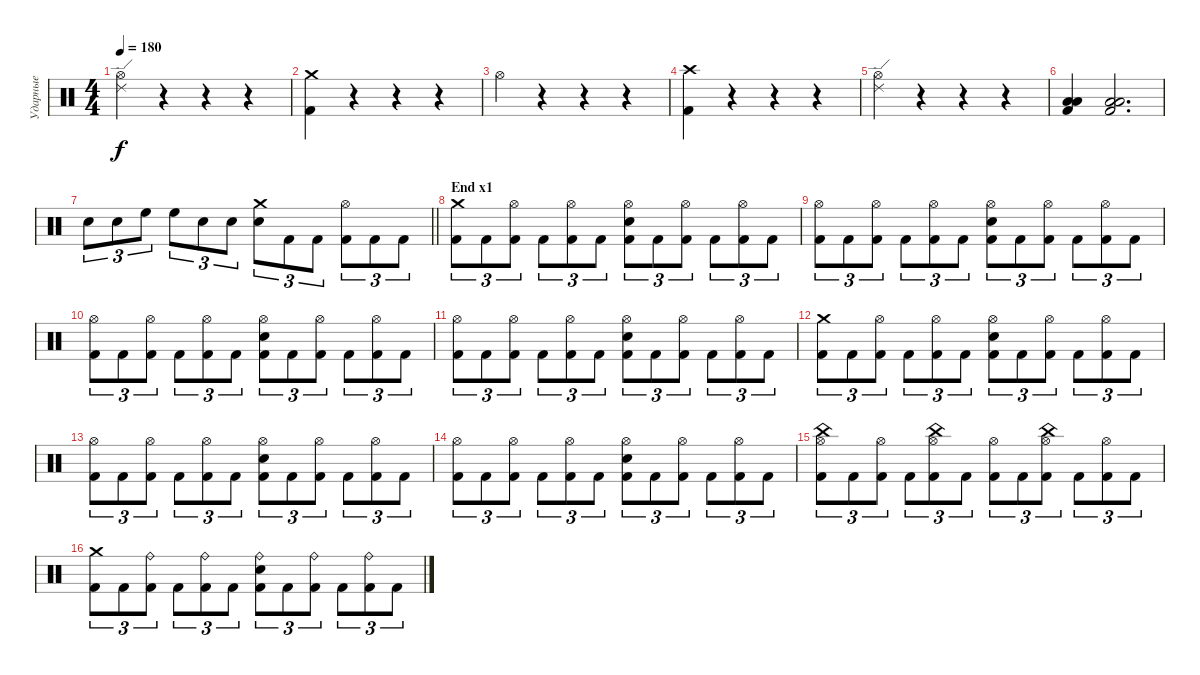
\track ("Ударные" "Ударные") {instrument percussion}
\staff {score}
\articulation defaults
\ts (4 4)
\tempo 180
\clef neutral
\ks c
("Ride (edge) 2" "Hi-Hat (open)").4{dy f} r.4 r.4 r.4 |
("Crash medium (hit)" "Kick (hit) 2").4 r.4 r.4 r.4 |
"Hi-Hat (open)".4 r.4 r.4 r.4 |
("Crash high (hit)" "Kick (hit) 2").4 r.4 r.4 r.4 |
("Hi-Hat (open)" "Ride (edge) 2").4 r.4 r.4 r.4 |
("Low Tom (hit)" "Low Floor Tom (hit)" "Kick (hit) 2").4 ("Low Tom (hit)" "Low Floor Tom (hit)" "Kick (hit) 2").2{d} |
\barLineRight lightlight "Electric Snare (hit)".8{tu (3 2)} "Electric Snare (hit)".8{tu (3 2)} "High Floor Tom (hit)".8{tu (3 2)} "High Floor Tom (hit)".8{tu (3 2)} "Electric Snare (hit)".8{tu (3 2)} "Electric Snare (hit)".8{tu (3 2)}
("Crash medium (hit)" "Electric Snare (hit)").8{tu (3 2)} "Kick (hit) 2".8{tu (3 2)} "Kick (hit) 2".8{tu (3 2)} ("Hi-Hat (open)" "Kick (hit) 2").8{tu (3 2)} "Kick (hit) 2".8{tu (3 2)} "Kick (hit) 2".8{tu (3 2)} |
\section ("" "End x1")
("Crash medium (hit)" "Kick (hit) 2").8{tu (3 2)} "Kick (hit) 2".8{tu (3 2)} ("Hi-Hat (open)" "Kick (hit) 2").8{tu (3 2)} "Kick (hit) 2".8{tu (3 2)} ("Hi-Hat (open)" "Kick (hit) 2").8{tu (3 2)} "Kick (hit) 2".8{tu (3 2)} ("Electric Snare (hit)" "Hi-Hat (open)" "Kick (hit) 2").8{tu (3 2)} "Kick (hit) 2".8{tu (3 2)} ("Hi-Hat (open)" "Kick (hit) 2").8{tu (3 2)} "Kick (hit) 2".8{tu (3 2)} ("Hi-Hat (open)" "Kick (hit) 2").8{tu (3 2)} "Kick (hit) 2".8{tu (3 2)} |
("Hi-Hat (open)" "Kick (hit) 2").8{tu (3 2)} "Kick (hit) 2".8{tu (3 2)} ("Hi-Hat (open)" "Kick (hit) 2").8{tu (3 2)} "Kick (hit) 2".8{tu (3 2)} ("Hi-Hat (open)" "Kick (hit) 2").8{tu (3 2)} "Kick (hit) 2".8{tu (3 2)} ("Electric Snare (hit)" "Hi-Hat (open)" "Kick (hit) 2").8{tu (3 2)} "Kick (hit) 2".8{tu (3 2)} ("Hi-Hat (open)" "Kick (hit) 2").8{tu (3 2)} "Kick (hit) 2".8{tu (3 2)} ("Hi-Hat (open)" "Kick (hit) 2").8{tu (3 2)} "Kick (hit) 2".8{tu (3 2)} |
("Hi-Hat (open)" "Kick (hit) 2").8{tu (3 2)} "Kick (hit) 2".8{tu (3 2)} ("Hi-Hat (open)" "Kick (hit) 2").8{tu (3 2)} "Kick (hit) 2".8{tu (3 2)} ("Hi-Hat (open)" "Kick (hit) 2").8{tu (3 2)} "Kick (hit) 2".8{tu (3 2)} ("Electric Snare (hit)" "Hi-Hat (open)" "Kick (hit) 2").8{tu (3 2)} "Kick (hit) 2".8{tu (3 2)} ("Hi-Hat (open)" "Kick (hit) 2").8{tu (3 2)} "Kick (hit) 2".8{tu (3 2)} ("Hi-Hat (open)" "Kick (hit) 2").8{tu (3 2)} "Kick (hit) 2".8{tu (3 2)} |
("Hi-Hat (open)" "Kick (hit) 2").8{tu (3 2)} "Kick (hit) 2".8{tu (3 2)} ("Hi-Hat (open)" "Kick (hit) 2").8{tu (3 2)} "Kick (hit) 2".8{tu (3 2)} ("Hi-Hat (open)" "Kick (hit) 2").8{tu (3 2)} "Kick (hit) 2".8{tu (3 2)} ("Electric Snare (hit)" "Hi-Hat (open)" "Kick (hit) 2").8{tu (3 2)} "Kick (hit) 2".8{tu (3 2)} ("Hi-Hat (open)" "Kick (hit) 2").8{tu (3 2)} "Kick (hit) 2".8{tu (3 2)} ("Hi-Hat (open)" "Kick (hit) 2").8{tu (3 2)} "Kick (hit) 2".8{tu (3 2)} |
("Crash medium (hit)" "Kick (hit) 2").8{tu (3 2)} "Kick (hit) 2".8{tu (3 2)} ("Hi-Hat (open)" "Kick (hit) 2").8{tu (3 2)} "Kick (hit) 2".8{tu (3 2)} ("Hi-Hat (open)" "Kick (hit) 2").8{tu (3 2)} "Kick (hit) 2".8{tu (3 2)} ("Electric Snare (hit)" "Hi-Hat (open)" "Kick (hit) 2").8{tu (3 2)} "Kick (hit) 2".8{tu (3 2)} ("Hi-Hat (open)" "Kick (hit) 2").8{tu (3 2)} "Kick (hit) 2".8{tu (3 2)} ("Hi-Hat (open)" "Kick (hit) 2").8{tu (3 2)} "Kick (hit) 2".8{tu (3 2)} |
("Hi-Hat (open)" "Kick (hit) 2").8{tu (3 2)} "Kick (hit) 2".8{tu (3 2)} ("Hi-Hat (open)" "Kick (hit) 2").8{tu (3 2)} "Kick (hit) 2".8{tu (3 2)} ("Hi-Hat (open)" "Kick (hit) 2").8{tu (3 2)} "Kick (hit) 2".8{tu (3 2)} ("Electric Snare (hit)" "Hi-Hat (open)" "Kick (hit) 2").8{tu (3 2)} "Kick (hit) 2".8{tu (3 2)} ("Hi-Hat (open)" "Kick (hit) 2").8{tu (3 2)} "Kick (hit) 2".8{tu (3 2)} ("Hi-Hat (open)" "Kick (hit) 2").8{tu (3 2)} "Kick (hit) 2".8{tu (3 2)} |
("Hi-Hat (open)" "Kick (hit) 2").8{tu (3 2)} "Kick (hit) 2".8{tu (3 2)} ("Hi-Hat (open)" "Kick (hit) 2").8{tu (3 2)} "Kick (hit) 2".8{tu (3 2)} ("Hi-Hat (open)" "Kick (hit) 2").8{tu (3 2)} "Kick (hit) 2".8{tu (3 2)} ("Electric Snare (hit)" "Hi-Hat (open)" "Kick (hit) 2").8{tu (3 2)} "Kick (hit) 2".8{tu (3 2)} ("Hi-Hat (open)" "Kick (hit) 2").8{tu (3 2)} "Kick (hit) 2".8{tu (3 2)} ("Hi-Hat (open)" "Kick (hit) 2").8{tu (3 2)} "Kick (hit) 2".8{tu (3 2)} |
("China (hit)" "Hi-Hat (open)" "Kick (hit) 2").8{tu (3 2)} "Kick (hit) 2".8{tu (3 2)} ("Hi-Hat (open)" "Kick (hit) 2").8{tu (3 2)} "Kick (hit) 2".8{tu (3 2)} ("China (hit)" "Hi-Hat (open)" "Kick (hit) 2").8{tu (3 2)} "Kick (hit) 2".8{tu (3 2)} ("Hi-Hat (open)" "Kick (hit) 2").8{tu (3 2)} "Kick (hit) 2".8{tu (3 2)} ("China (hit)" "Hi-Hat (open)" "Kick (hit) 2").8{tu (3 2)} "Kick (hit) 2".8{tu (3 2)} ("Hi-Hat (open)" "Kick (hit) 2").8{tu (3 2)} "Kick (hit) 2".8{tu (3 2)} |
("Crash medium (hit)" "Kick (hit) 2").8{tu (3 2)} "Kick (hit) 2".8{tu (3 2)} ("Ride (bell)" "Kick (hit) 2").8{tu (3 2)} "Kick (hit) 2".8{tu (3 2)} ("Ride (bell)" "Kick (hit) 2").8{tu (3 2)} "Kick (hit) 2".8{tu (3 2)} ("Electric Snare (hit)" "Ride (bell)" "Kick (hit) 2").8{tu (3 2)} "Kick (hit) 2".8{tu (3 2)} ("Ride (bell)" "Kick (hit) 2").8{tu (3 2)} "Kick (hit) 2".8{tu (3 2)} ("Ride (bell)" "Kick (hit) 2").8{tu (3 2)} "Kick (hit) 2".8{tu (3 2)}
